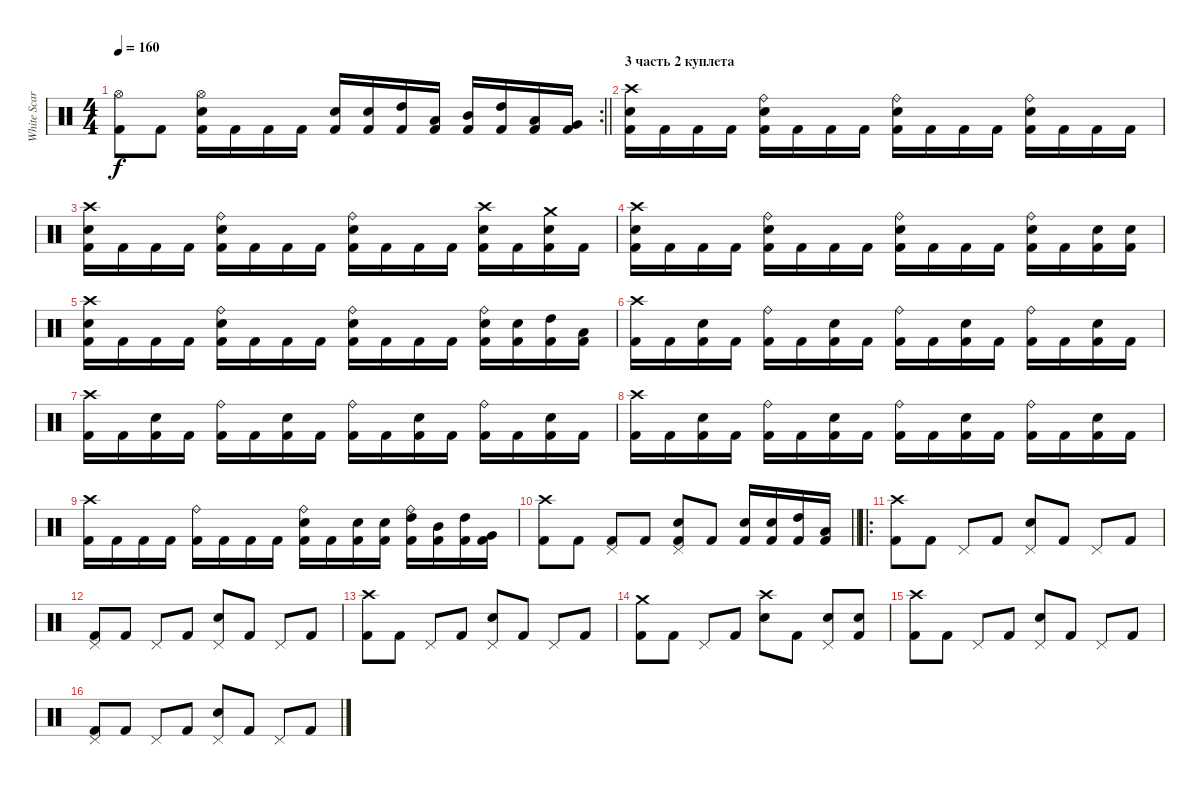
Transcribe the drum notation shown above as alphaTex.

\track ("White Scar" "White Scar") {instrument percussion}
\staff {score}
\articulation defaults
\rc 2
\ts (4 4)
\tempo 160
\clef neutral
\barLineRight lightlight
\ks c
("Hi-Hat (open)" "Kick (hit) 2").8{dy f} "Kick (hit) 2".8 ("Hi-Hat (open)" "Snare (hit) 2" "Kick (hit) 2").16 "Kick (hit) 2".16 "Kick (hit) 2".16 "Kick (hit) 2".16 ("Snare (hit) 2" "Kick (hit) 2").16 ("Snare (hit) 2" "Kick (hit) 2").16 ("High Tom (hit)" "Kick (hit) 2").16 ("Low Tom (hit)" "Kick (hit) 2").16 ("Mid Tom (hit)" "Kick (hit) 2").16 ("High Tom (hit)" "Kick (hit) 2").16 ("Low Tom (hit)" "Kick (hit) 2").16 ("Very Low Tom (hit)" "Kick (hit) 2").16 |
\section ("" "3 часть 2 куплета")
("Crash high (hit)" "Snare (hit) 2" "Kick (hit) 2").16 "Kick (hit) 2".16 "Kick (hit) 2".16 "Kick (hit) 2".16 ("Ride (bell)" "Snare (hit) 2" "Kick (hit) 2").16 "Kick (hit) 2".16 "Kick (hit) 2".16 "Kick (hit) 2".16 ("Ride (bell)" "Snare (hit) 2" "Kick (hit) 2").16 "Kick (hit) 2".16 "Kick (hit) 2".16 "Kick (hit) 2".16 ("Ride (bell)" "Snare (hit) 2" "Kick (hit) 2").16 "Kick (hit) 2".16 "Kick (hit) 2".16 "Kick (hit) 2".16 |
("Crash high (hit)" "Snare (hit) 2" "Kick (hit) 2").16 "Kick (hit) 2".16 "Kick (hit) 2".16 "Kick (hit) 2".16 ("Ride (bell)" "Snare (hit) 2" "Kick (hit) 2").16 "Kick (hit) 2".16 "Kick (hit) 2".16 "Kick (hit) 2".16 ("Ride (bell)" "Snare (hit) 2" "Kick (hit) 2").16 "Kick (hit) 2".16 "Kick (hit) 2".16 "Kick (hit) 2".16 ("Crash high (hit)" "Snare (hit) 2" "Kick (hit) 2").16 "Kick (hit) 2".16 ("Crash medium (hit)" "Snare (hit) 2" "Kick (hit) 2").16 "Kick (hit) 2".16 |
("Crash high (hit)" "Snare (hit) 2" "Kick (hit) 2").16 "Kick (hit) 2".16 "Kick (hit) 2".16 "Kick (hit) 2".16 ("Ride (bell)" "Snare (hit) 2" "Kick (hit) 2").16 "Kick (hit) 2".16 "Kick (hit) 2".16 "Kick (hit) 2".16 ("Ride (bell)" "Snare (hit) 2" "Kick (hit) 2").16 "Kick (hit) 2".16 "Kick (hit) 2".16 "Kick (hit) 2".16 ("Ride (bell)" "Snare (hit) 2" "Kick (hit) 2").16 "Kick (hit) 2".16 ("Snare (hit) 2" "Kick (hit) 2").16 ("Snare (hit) 2" "Kick (hit) 2").16 |
("Crash high (hit)" "Snare (hit) 2" "Kick (hit) 2").16 "Kick (hit) 2".16 "Kick (hit) 2".16 "Kick (hit) 2".16 ("Ride (bell)" "Snare (hit) 2" "Kick (hit) 2").16 "Kick (hit) 2".16 "Kick (hit) 2".16 "Kick (hit) 2".16 ("Ride (bell)" "Snare (hit) 2" "Kick (hit) 2").16 "Kick (hit) 2".16 "Kick (hit) 2".16 "Kick (hit) 2".16 ("Ride (bell)" "Snare (hit) 2" "Kick (hit) 2").16 ("Snare (hit) 2" "Kick (hit) 2").16 ("High Tom (hit)" "Kick (hit) 2").16 ("Low Tom (hit)" "Kick (hit) 2").16 |
("Crash high (hit)" "Kick (hit) 2").16 "Kick (hit) 2".16 ("Snare (hit) 2" "Kick (hit) 2").16 "Kick (hit) 2".16 ("Ride (bell)" "Kick (hit) 2").16 "Kick (hit) 2".16 ("Snare (hit) 2" "Kick (hit) 2").16 "Kick (hit) 2".16 ("Ride (bell)" "Kick (hit) 2").16 "Kick (hit) 2".16 ("Snare (hit) 2" "Kick (hit) 2").16 "Kick (hit) 2".16 ("Ride (bell)" "Kick (hit) 2").16 "Kick (hit) 2".16 ("Snare (hit) 2" "Kick (hit) 2").16 "Kick (hit) 2".16 |
("Crash high (hit)" "Kick (hit) 2").16 "Kick (hit) 2".16 ("Snare (hit) 2" "Kick (hit) 2").16 "Kick (hit) 2".16 ("Ride (bell)" "Kick (hit) 2").16 "Kick (hit) 2".16 ("Snare (hit) 2" "Kick (hit) 2").16 "Kick (hit) 2".16 ("Ride (bell)" "Kick (hit) 2").16 "Kick (hit) 2".16 ("Snare (hit) 2" "Kick (hit) 2").16 "Kick (hit) 2".16 ("Ride (bell)" "Kick (hit) 2").16 "Kick (hit) 2".16 ("Snare (hit) 2" "Kick (hit) 2").16 "Kick (hit) 2".16 |
("Crash high (hit)" "Kick (hit) 2").16 "Kick (hit) 2".16 ("Snare (hit) 2" "Kick (hit) 2").16 "Kick (hit) 2".16 ("Ride (bell)" "Kick (hit) 2").16 "Kick (hit) 2".16 ("Snare (hit) 2" "Kick (hit) 2").16 "Kick (hit) 2".16 ("Ride (bell)" "Kick (hit) 2").16 "Kick (hit) 2".16 ("Snare (hit) 2" "Kick (hit) 2").16 "Kick (hit) 2".16 ("Ride (bell)" "Kick (hit) 2").16 "Kick (hit) 2".16 ("Snare (hit) 2" "Kick (hit) 2").16 "Kick (hit) 2".16 |
("Crash high (hit)" "Kick (hit) 2").16 "Kick (hit) 2".16 "Kick (hit) 2".16 "Kick (hit) 2".16 ("Ride (bell)" "Kick (hit) 2").16 "Kick (hit) 2".16 "Kick (hit) 2".16 "Kick (hit) 2".16 ("Ride (bell)" "Snare (hit) 2" "Kick (hit) 2").16 "Kick (hit) 2".16 ("Snare (hit) 2" "Kick (hit) 2").16 ("Snare (hit) 2" "Kick (hit) 2").16 ("Ride (bell)" "High Tom (hit)" "Kick (hit) 2").16 ("Mid Tom (hit)" "Kick (hit) 2").16 ("High Tom (hit)" "Kick (hit) 2").16 ("Very Low Tom (hit)" "Kick (hit) 2").16 |
\barLineRight lightlight
("Crash high (hit)" "Kick (hit) 2").8 "Kick (hit) 2".8 ("Pedal Hi-Hat (hit)" "Kick (hit) 2").8 "Kick (hit) 2".8 ("Pedal Hi-Hat (hit)" "Snare (hit) 2" "Kick (hit) 2").8 "Kick (hit) 2".8 ("Snare (hit) 2" "Kick (hit) 2").16 ("Snare (hit) 2" "Kick (hit) 2").16 ("High Tom (hit)" "Kick (hit) 2").16 ("Low Tom (hit)" "Kick (hit) 2").16 |
\ro
("Crash high (hit)" "Kick (hit) 2").8 "Kick (hit) 2".8 "Pedal Hi-Hat (hit)".8 "Kick (hit) 2".8 ("Pedal Hi-Hat (hit)" "Snare (hit) 2").8 "Kick (hit) 2".8 "Pedal Hi-Hat (hit)".8 "Kick (hit) 2".8 |
("Pedal Hi-Hat (hit)" "Kick (hit) 2").8 "Kick (hit) 2".8 "Pedal Hi-Hat (hit)".8 "Kick (hit) 2".8 ("Pedal Hi-Hat (hit)" "Snare (hit) 2").8 "Kick (hit) 2".8 "Pedal Hi-Hat (hit)".8 "Kick (hit) 2".8 |
("Crash high (hit)" "Kick (hit) 2").8 "Kick (hit) 2".8 "Pedal Hi-Hat (hit)".8 "Kick (hit) 2".8 ("Pedal Hi-Hat (hit)" "Snare (hit) 2").8 "Kick (hit) 2".8 "Pedal Hi-Hat (hit)".8 "Kick (hit) 2".8 |
("Crash medium (hit)" "Kick (hit) 2").8 "Kick (hit) 2".8 "Pedal Hi-Hat (hit)".8 "Kick (hit) 2".8 ("Crash high (hit)" "Snare (hit) 2").8 "Kick (hit) 2".8 ("Pedal Hi-Hat (hit)" "Snare (hit) 2").8 ("Snare (hit) 2" "Kick (hit) 2").8 |
("Crash high (hit)" "Kick (hit) 2").8 "Kick (hit) 2".8 "Pedal Hi-Hat (hit)".8 "Kick (hit) 2".8 ("Pedal Hi-Hat (hit)" "Snare (hit) 2").8 "Kick (hit) 2".8 "Pedal Hi-Hat (hit)".8 "Kick (hit) 2".8 |
("Pedal Hi-Hat (hit)" "Kick (hit) 2").8 "Kick (hit) 2".8 "Pedal Hi-Hat (hit)".8 "Kick (hit) 2".8 ("Pedal Hi-Hat (hit)" "Snare (hit) 2").8 "Kick (hit) 2".8 "Pedal Hi-Hat (hit)".8 "Kick (hit) 2".8
